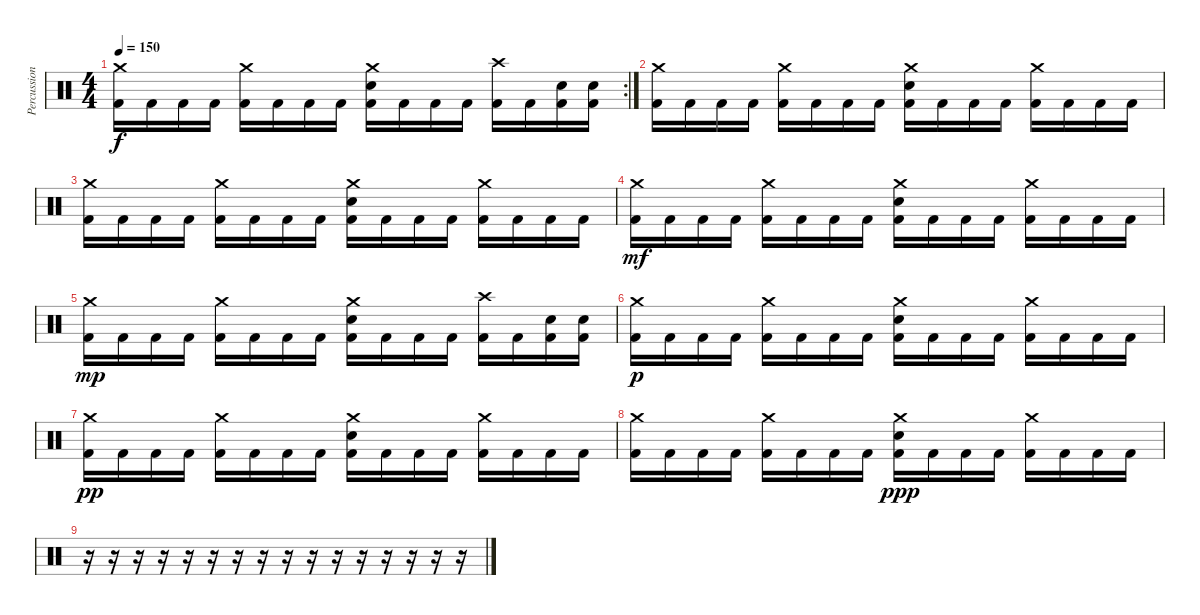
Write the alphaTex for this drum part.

\track ("Percussions" "Percussion") {instrument percussion}
\staff {score}
\articulation defaults
\rc 2
\ts (4 4)
\tempo 150
\clef neutral
\ks c
("Crash medium (hit)" "Kick (hit) 2").16{dy f} "Kick (hit) 2".16 "Kick (hit) 2".16 "Kick (hit) 2".16 ("Crash medium (hit)" "Kick (hit) 2").16 "Kick (hit) 2".16 "Kick (hit) 2".16 "Kick (hit) 2".16 ("Crash medium (hit)" "Snare (hit) 2" "Kick (hit) 2").16 "Kick (hit) 2".16 "Kick (hit) 2".16 "Kick (hit) 2".16 ("Crash high (hit)" "Kick (hit) 2").16 "Kick (hit) 2".16 ("Snare (hit) 2" "Kick (hit) 2").16 ("Snare (hit) 2" "Kick (hit) 2").16 |
("Crash medium (hit)" "Kick (hit) 2").16 "Kick (hit) 2".16 "Kick (hit) 2".16 "Kick (hit) 2".16 ("Crash medium (hit)" "Kick (hit) 2").16 "Kick (hit) 2".16 "Kick (hit) 2".16 "Kick (hit) 2".16 ("Crash medium (hit)" "Snare (hit) 2" "Kick (hit) 2").16 "Kick (hit) 2".16 "Kick (hit) 2".16 "Kick (hit) 2".16 ("Crash medium (hit)" "Kick (hit) 2").16 "Kick (hit) 2".16 "Kick (hit) 2".16 "Kick (hit) 2".16 |
("Crash medium (hit)" "Kick (hit) 2").16 "Kick (hit) 2".16 "Kick (hit) 2".16 "Kick (hit) 2".16 ("Crash medium (hit)" "Kick (hit) 2").16 "Kick (hit) 2".16 "Kick (hit) 2".16 "Kick (hit) 2".16 ("Crash medium (hit)" "Snare (hit) 2" "Kick (hit) 2").16 "Kick (hit) 2".16 "Kick (hit) 2".16 "Kick (hit) 2".16 ("Crash medium (hit)" "Kick (hit) 2").16 "Kick (hit) 2".16 "Kick (hit) 2".16 "Kick (hit) 2".16 |
("Crash medium (hit)" "Kick (hit) 2").16{dy mf} "Kick (hit) 2".16 "Kick (hit) 2".16 "Kick (hit) 2".16 ("Crash medium (hit)" "Kick (hit) 2").16 "Kick (hit) 2".16 "Kick (hit) 2".16 "Kick (hit) 2".16 ("Crash medium (hit)" "Snare (hit) 2" "Kick (hit) 2").16 "Kick (hit) 2".16 "Kick (hit) 2".16 "Kick (hit) 2".16 ("Crash medium (hit)" "Kick (hit) 2").16 "Kick (hit) 2".16 "Kick (hit) 2".16 "Kick (hit) 2".16 |
("Crash medium (hit)" "Kick (hit) 2").16{dy mp} "Kick (hit) 2".16 "Kick (hit) 2".16 "Kick (hit) 2".16 ("Crash medium (hit)" "Kick (hit) 2").16 "Kick (hit) 2".16 "Kick (hit) 2".16 "Kick (hit) 2".16 ("Crash medium (hit)" "Snare (hit) 2" "Kick (hit) 2").16 "Kick (hit) 2".16 "Kick (hit) 2".16 "Kick (hit) 2".16 ("Crash high (hit)" "Kick (hit) 2").16 "Kick (hit) 2".16 ("Snare (hit) 2" "Kick (hit) 2").16 ("Snare (hit) 2" "Kick (hit) 2").16 |
("Crash medium (hit)" "Kick (hit) 2").16{dy p} "Kick (hit) 2".16 "Kick (hit) 2".16 "Kick (hit) 2".16 ("Crash medium (hit)" "Kick (hit) 2").16 "Kick (hit) 2".16 "Kick (hit) 2".16 "Kick (hit) 2".16 ("Crash medium (hit)" "Snare (hit) 2" "Kick (hit) 2").16 "Kick (hit) 2".16 "Kick (hit) 2".16 "Kick (hit) 2".16 ("Crash medium (hit)" "Kick (hit) 2").16 "Kick (hit) 2".16 "Kick (hit) 2".16 "Kick (hit) 2".16 |
("Crash medium (hit)" "Kick (hit) 2").16{dy pp} "Kick (hit) 2".16 "Kick (hit) 2".16 "Kick (hit) 2".16 ("Crash medium (hit)" "Kick (hit) 2").16 "Kick (hit) 2".16 "Kick (hit) 2".16 "Kick (hit) 2".16 ("Crash medium (hit)" "Snare (hit) 2" "Kick (hit) 2").16 "Kick (hit) 2".16 "Kick (hit) 2".16 "Kick (hit) 2".16 ("Crash medium (hit)" "Kick (hit) 2").16 "Kick (hit) 2".16 "Kick (hit) 2".16 "Kick (hit) 2".16 |
("Crash medium (hit)" "Kick (hit) 2").16 "Kick (hit) 2".16 "Kick (hit) 2".16 "Kick (hit) 2".16 ("Crash medium (hit)"{x} "Kick (hit) 2").16 "Kick (hit) 2".16 "Kick (hit) 2".16 "Kick (hit) 2".16 ("Crash medium (hit)"{x} "Snare (hit) 2" "Kick (hit) 2").16{dy ppp} "Kick (hit) 2".16 "Kick (hit) 2".16 "Kick (hit) 2".16 ("Crash medium (hit)"{x} "Kick (hit) 2").16 "Kick (hit) 2".16 "Kick (hit) 2".16 "Kick (hit) 2".16 |
r.16 r.16 r.16 r.16 r.16 r.16 r.16 r.16 r.16 r.16 r.16 r.16 r.16 r.16 r.16 r.16
